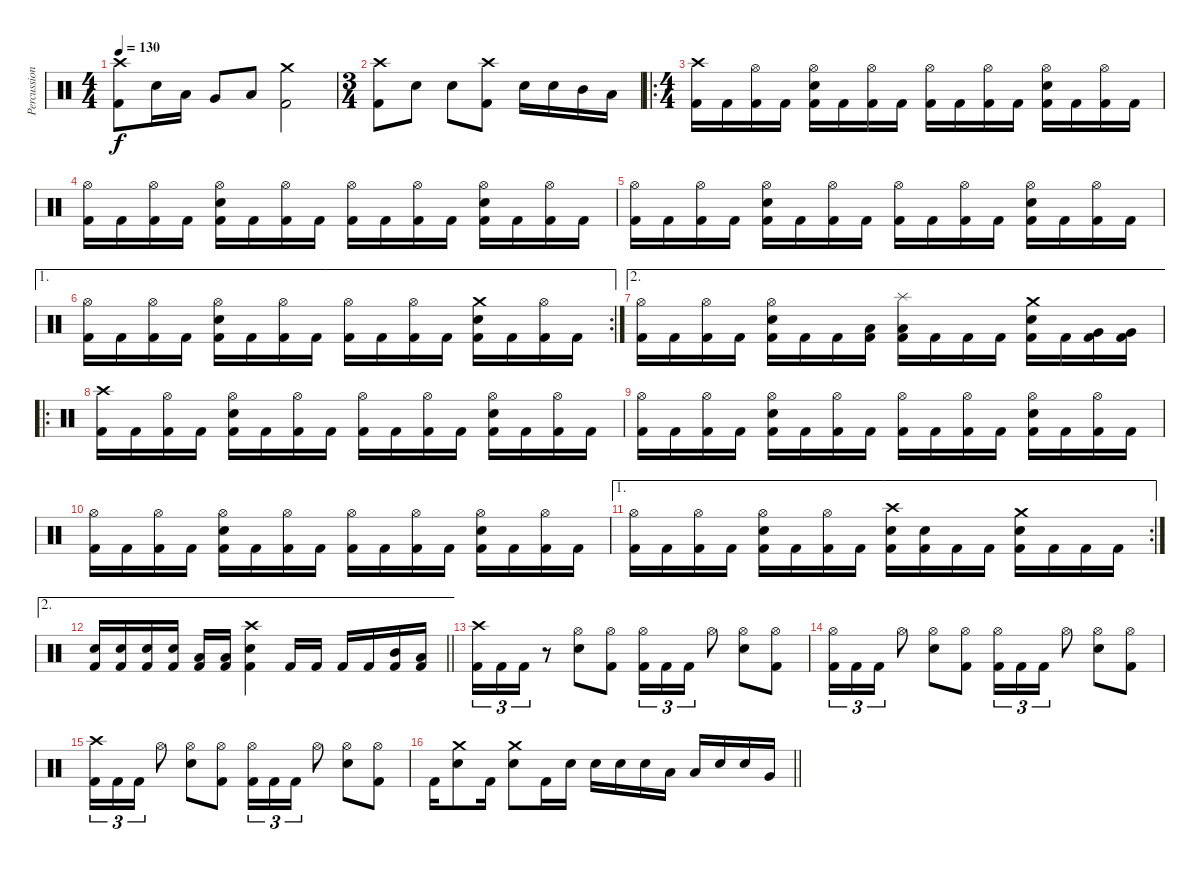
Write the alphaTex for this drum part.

\track ("Percussion" "Percussion") {instrument percussion}
\staff {score}
\articulation defaults
\ts (4 4)
\tempo 130
\clef neutral
\ks c
("Crash high (hit)" "Kick (hit) 2").8{dy f} "Electric Snare (hit)".16 "Low Tom (hit)".16 "Very Low Tom (hit)".8 "Low Floor Tom (hit)".8 ("Crash medium (hit)" "Kick (hit) 2").2 |
\ts (3 4)
("Crash high (hit)" "Kick (hit) 2").8 "Electric Snare (hit)".8 "Electric Snare (hit)".8 ("Crash high (hit)" "Kick (hit) 2").8 "Electric Snare (hit)".16 "Electric Snare (hit)".16 "Mid Tom (hit)".16 "Low Tom (hit)".16 |
\ro
\ts (4 4)
("Crash high (hit)" "Kick (hit) 2").16 "Kick (hit) 2".16 ("Hi-Hat (open)" "Kick (hit) 2").16 "Kick (hit) 2".16 ("Hi-Hat (open)" "Electric Snare (hit)" "Kick (hit) 2").16 "Kick (hit) 2".16 ("Hi-Hat (open)" "Kick (hit) 2").16 "Kick (hit) 2".16 ("Hi-Hat (open)" "Kick (hit) 2").16 "Kick (hit) 2".16 ("Hi-Hat (open)" "Kick (hit) 2").16 "Kick (hit) 2".16 ("Hi-Hat (open)" "Electric Snare (hit)" "Kick (hit) 2").16 "Kick (hit) 2".16 ("Hi-Hat (open)" "Kick (hit) 2").16 "Kick (hit) 2".16 |
("Hi-Hat (open)" "Kick (hit) 2").16 "Kick (hit) 2".16 ("Hi-Hat (open)" "Kick (hit) 2").16 "Kick (hit) 2".16 ("Hi-Hat (open)" "Electric Snare (hit)" "Kick (hit) 2").16 "Kick (hit) 2".16 ("Hi-Hat (open)" "Kick (hit) 2").16 "Kick (hit) 2".16 ("Hi-Hat (open)" "Kick (hit) 2").16 "Kick (hit) 2".16 ("Hi-Hat (open)" "Kick (hit) 2").16 "Kick (hit) 2".16 ("Hi-Hat (open)" "Electric Snare (hit)" "Kick (hit) 2").16 "Kick (hit) 2".16 ("Hi-Hat (open)" "Kick (hit) 2").16 "Kick (hit) 2".16 |
("Hi-Hat (open)" "Kick (hit) 2").16 "Kick (hit) 2".16 ("Hi-Hat (open)" "Kick (hit) 2").16 "Kick (hit) 2".16 ("Hi-Hat (open)" "Electric Snare (hit)" "Kick (hit) 2").16 "Kick (hit) 2".16 ("Hi-Hat (open)" "Kick (hit) 2").16 "Kick (hit) 2".16 ("Hi-Hat (open)" "Kick (hit) 2").16 "Kick (hit) 2".16 ("Hi-Hat (open)" "Kick (hit) 2").16 "Kick (hit) 2".16 ("Hi-Hat (open)" "Electric Snare (hit)" "Kick (hit) 2").16 "Kick (hit) 2".16 ("Hi-Hat (open)" "Kick (hit) 2").16 "Kick (hit) 2".16 |
\ae 1
\rc 2
("Hi-Hat (open)" "Kick (hit) 2").16 "Kick (hit) 2".16 ("Hi-Hat (open)" "Kick (hit) 2").16 "Kick (hit) 2".16 ("Hi-Hat (open)" "Electric Snare (hit)" "Kick (hit) 2").16 "Kick (hit) 2".16 ("Hi-Hat (open)" "Kick (hit) 2").16 "Kick (hit) 2".16 ("Hi-Hat (open)" "Kick (hit) 2").16 "Kick (hit) 2".16 ("Hi-Hat (open)" "Kick (hit) 2").16 "Kick (hit) 2".16 ("Crash medium (hit)" "Electric Snare (hit)" "Kick (hit) 2").16 "Kick (hit) 2".16 ("Hi-Hat (open)" "Kick (hit) 2").16 "Kick (hit) 2".16 |
\ae 2
("Hi-Hat (open)" "Kick (hit) 2").16 "Kick (hit) 2".16 ("Hi-Hat (open)" "Kick (hit) 2").16 "Kick (hit) 2".16 ("Hi-Hat (open)" "Electric Snare (hit)" "Kick (hit) 2").16 "Kick (hit) 2".16 "Kick (hit) 2".16 ("Low Tom (hit)" "Kick (hit) 2").16 ("Splash (hit)" "Low Tom (hit)" "Kick (hit) 2").16 "Kick (hit) 2".16 "Kick (hit) 2".16 "Kick (hit) 2".16 ("Crash medium (hit)" "Electric Snare (hit)" "Kick (hit) 2").16 "Kick (hit) 2".16 ("Very Low Tom (hit)" "Kick (hit) 2").16 ("Very Low Tom (hit)" "Kick (hit) 2").16 |
\ro
("Crash high (hit)" "Kick (hit) 2").16 "Kick (hit) 2".16 ("Hi-Hat (open)" "Kick (hit) 2").16 "Kick (hit) 2".16 ("Hi-Hat (open)" "Electric Snare (hit)" "Kick (hit) 2").16 "Kick (hit) 2".16 ("Hi-Hat (open)" "Kick (hit) 2").16 "Kick (hit) 2".16 ("Hi-Hat (open)" "Kick (hit) 2").16 "Kick (hit) 2".16 ("Hi-Hat (open)" "Kick (hit) 2").16 "Kick (hit) 2".16 ("Hi-Hat (open)" "Electric Snare (hit)" "Kick (hit) 2").16 "Kick (hit) 2".16 ("Hi-Hat (open)" "Kick (hit) 2").16 "Kick (hit) 2".16 |
("Hi-Hat (open)" "Kick (hit) 2").16 "Kick (hit) 2".16 ("Hi-Hat (open)" "Kick (hit) 2").16 "Kick (hit) 2".16 ("Hi-Hat (open)" "Electric Snare (hit)" "Kick (hit) 2").16 "Kick (hit) 2".16 ("Hi-Hat (open)" "Kick (hit) 2").16 "Kick (hit) 2".16 ("Hi-Hat (open)" "Kick (hit) 2").16 "Kick (hit) 2".16 ("Hi-Hat (open)" "Kick (hit) 2").16 "Kick (hit) 2".16 ("Hi-Hat (open)" "Electric Snare (hit)" "Kick (hit) 2").16 "Kick (hit) 2".16 ("Hi-Hat (open)" "Kick (hit) 2").16 "Kick (hit) 2".16 |
("Hi-Hat (open)" "Kick (hit) 2").16 "Kick (hit) 2".16 ("Hi-Hat (open)" "Kick (hit) 2").16 "Kick (hit) 2".16 ("Hi-Hat (open)" "Electric Snare (hit)" "Kick (hit) 2").16 "Kick (hit) 2".16 ("Hi-Hat (open)" "Kick (hit) 2").16 "Kick (hit) 2".16 ("Hi-Hat (open)" "Kick (hit) 2").16 "Kick (hit) 2".16 ("Hi-Hat (open)" "Kick (hit) 2").16 "Kick (hit) 2".16 ("Hi-Hat (open)" "Electric Snare (hit)" "Kick (hit) 2").16 "Kick (hit) 2".16 ("Hi-Hat (open)" "Kick (hit) 2").16 "Kick (hit) 2".16 |
\ae 1
\rc 2
("Hi-Hat (open)" "Kick (hit) 2").16 "Kick (hit) 2".16 ("Hi-Hat (open)" "Kick (hit) 2").16 "Kick (hit) 2".16 ("Hi-Hat (open)" "Electric Snare (hit)" "Kick (hit) 2").16 "Kick (hit) 2".16 ("Hi-Hat (open)" "Kick (hit) 2").16 "Kick (hit) 2".16 ("Crash high (hit)" "Electric Snare (hit)" "Kick (hit) 2").16 ("Electric Snare (hit)" "Kick (hit) 2").16 "Kick (hit) 2".16 "Kick (hit) 2".16 ("Crash medium (hit)" "Electric Snare (hit)" "Kick (hit) 2").16 "Kick (hit) 2".16 "Kick (hit) 2".16 "Kick (hit) 2".16 |
\ae 2
\barLineRight lightlight
("Electric Snare (hit)" "Kick (hit) 2").16 ("Electric Snare (hit)" "Kick (hit) 2").16 ("Electric Snare (hit)" "Kick (hit) 2").16 ("Electric Snare (hit)" "Kick (hit) 2").16 ("Low Tom (hit)" "Kick (hit) 2").16 ("Low Tom (hit)" "Kick (hit) 2").16 ("Crash high (hit)" "Electric Snare (hit)" "Kick (hit) 2").4 "Kick (hit) 2".16 "Kick (hit) 2".16 "Kick (hit) 2".16 "Kick (hit) 2".16 ("Mid Tom (hit)" "Kick (hit) 2").16 ("Low Tom (hit)" "Kick (hit) 2").16 |
("Crash high (hit)" "Kick (hit) 2").16{tu (3 2)} "Kick (hit) 2".16{tu (3 2)} "Kick (hit) 2".16{tu (3 2)} r.8 ("Hi-Hat (open)" "Electric Snare (hit)").8 ("Hi-Hat (open)" "Kick (hit) 2").8 ("Hi-Hat (open)" "Kick (hit) 2").16{tu (3 2)} "Kick (hit) 2".16{tu (3 2)} "Kick (hit) 2".16{tu (3 2)} "Hi-Hat (open)".8 ("Hi-Hat (open)" "Electric Snare (hit)").8 ("Hi-Hat (open)" "Kick (hit) 2").8 |
("Hi-Hat (open)" "Kick (hit) 2").16{tu (3 2)} "Kick (hit) 2".16{tu (3 2)} "Kick (hit) 2".16{tu (3 2)} "Hi-Hat (open)".8 ("Hi-Hat (open)" "Electric Snare (hit)").8 ("Hi-Hat (open)" "Kick (hit) 2").8 ("Hi-Hat (open)" "Kick (hit) 2").16{tu (3 2)} "Kick (hit) 2".16{tu (3 2)} "Kick (hit) 2".16{tu (3 2)} "Hi-Hat (open)".8 ("Hi-Hat (open)" "Electric Snare (hit)").8 ("Hi-Hat (open)" "Kick (hit) 2").8 |
("Crash high (hit)" "Kick (hit) 2").16{tu (3 2)} "Kick (hit) 2".16{tu (3 2)} "Kick (hit) 2".16{tu (3 2)} "Hi-Hat (open)".8 ("Hi-Hat (open)" "Electric Snare (hit)").8 ("Hi-Hat (open)" "Kick (hit) 2").8 ("Hi-Hat (open)" "Kick (hit) 2").16{tu (3 2)} "Kick (hit) 2".16{tu (3 2)} "Kick (hit) 2".16{tu (3 2)} "Hi-Hat (open)".8 ("Hi-Hat (open)" "Electric Snare (hit)").8 ("Hi-Hat (open)" "Kick (hit) 2").8 |
\barLineRight lightlight "Kick (hit) 2".16
("Crash medium (hit)" "Electric Snare (hit)").8 "Kick (hit) 2".16 ("Crash medium (hit)" "Electric Snare (hit)").8 "Kick (hit) 2".16 "Electric Snare (hit)".16 "Electric Snare (hit)".16 "Electric Snare (hit)".16 "Electric Snare (hit)".16 "Low Tom (hit)".16 "Low Tom (hit)".16 "Electric Snare (hit)".16 "Electric Snare (hit)".16 "Very Low Tom (hit)".16
